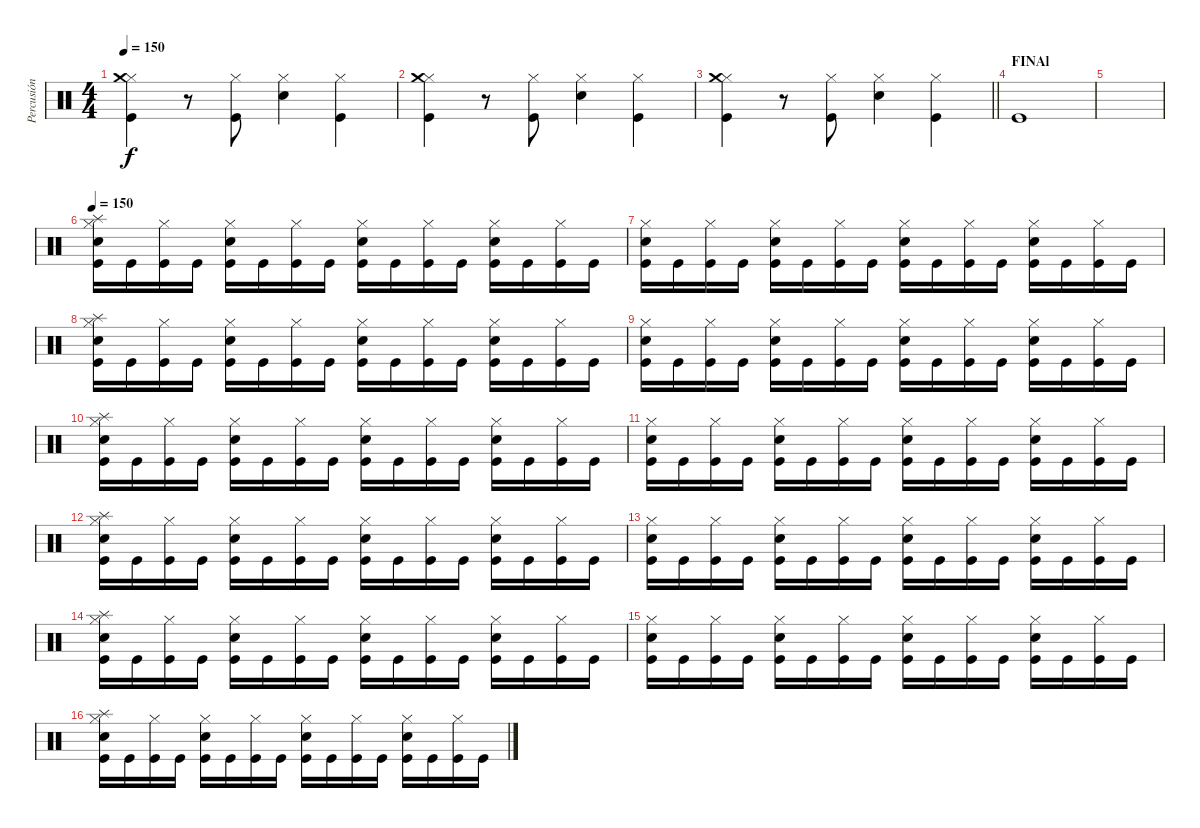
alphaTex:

\track ("Percusión" "Percusión") {instrument percussion}
\staff {score}
\articulation defaults
\ts (4 4)
\tempo 150
\clef neutral
\ks c
("Hi-Hat (closed)" "Crash medium (hit)" "Kick (hit)").4{dy f} r.8 ("Hi-Hat (closed)" "Kick (hit)").8 ("Hi-Hat (closed)" "Snare (hit) 2").4 ("Hi-Hat (closed)" "Kick (hit)").4 |
("Hi-Hat (closed)" "Crash medium (hit)" "Kick (hit)").4 r.8 ("Hi-Hat (closed)" "Kick (hit)").8 ("Hi-Hat (closed)" "Snare (hit) 2").4 ("Hi-Hat (closed)" "Kick (hit)").4 |
\barLineRight lightlight
("Hi-Hat (closed)" "Crash medium (hit)" "Kick (hit)").4 r.8 ("Hi-Hat (closed)" "Kick (hit)").8 ("Hi-Hat (closed)" "Snare (hit) 2").4 ("Hi-Hat (closed)" "Kick (hit)").4 |
\section ("" "FINAl")
"Kick (hit)".1 |
|
\tempo 150
("Hi-Hat (closed)" "Splash (hit)" "Snare (hit) 2" "Kick (hit)").16 "Kick (hit)".16 ("Hi-Hat (closed)" "Kick (hit)").16 "Kick (hit)".16 ("Hi-Hat (closed)" "Snare (hit) 2" "Kick (hit)").16 "Kick (hit)".16 ("Hi-Hat (closed)" "Kick (hit)").16 "Kick (hit)".16 ("Hi-Hat (closed)" "Snare (hit) 2" "Kick (hit)").16 "Kick (hit)".16 ("Hi-Hat (closed)" "Kick (hit)").16 "Kick (hit)".16 ("Hi-Hat (closed)" "Snare (hit) 2" "Kick (hit)").16 "Kick (hit)".16 ("Hi-Hat (closed)" "Kick (hit)").16 "Kick (hit)".16 |
("Hi-Hat (closed)" "Snare (hit) 2" "Kick (hit)").16 "Kick (hit)".16 ("Hi-Hat (closed)" "Kick (hit)").16 "Kick (hit)".16 ("Hi-Hat (closed)" "Snare (hit) 2" "Kick (hit)").16 "Kick (hit)".16 ("Hi-Hat (closed)" "Kick (hit)").16 "Kick (hit)".16 ("Hi-Hat (closed)" "Snare (hit) 2" "Kick (hit)").16 "Kick (hit)".16 ("Hi-Hat (closed)" "Kick (hit)").16 "Kick (hit)".16 ("Hi-Hat (closed)" "Snare (hit) 2" "Kick (hit)").16 "Kick (hit)".16 ("Hi-Hat (closed)" "Kick (hit)").16 "Kick (hit)".16 |
("Hi-Hat (closed)" "Splash (hit)" "Snare (hit) 2" "Kick (hit)").16 "Kick (hit)".16 ("Hi-Hat (closed)" "Kick (hit)").16 "Kick (hit)".16 ("Hi-Hat (closed)" "Snare (hit) 2" "Kick (hit)").16 "Kick (hit)".16 ("Hi-Hat (closed)" "Kick (hit)").16 "Kick (hit)".16 ("Hi-Hat (closed)" "Snare (hit) 2" "Kick (hit)").16 "Kick (hit)".16 ("Hi-Hat (closed)" "Kick (hit)").16 "Kick (hit)".16 ("Hi-Hat (closed)" "Snare (hit) 2" "Kick (hit)").16 "Kick (hit)".16 ("Hi-Hat (closed)" "Kick (hit)").16 "Kick (hit)".16 |
("Hi-Hat (closed)" "Snare (hit) 2" "Kick (hit)").16 "Kick (hit)".16 ("Hi-Hat (closed)" "Kick (hit)").16 "Kick (hit)".16 ("Hi-Hat (closed)" "Snare (hit) 2" "Kick (hit)").16 "Kick (hit)".16 ("Hi-Hat (closed)" "Kick (hit)").16 "Kick (hit)".16 ("Hi-Hat (closed)" "Snare (hit) 2" "Kick (hit)").16 "Kick (hit)".16 ("Hi-Hat (closed)" "Kick (hit)").16 "Kick (hit)".16 ("Hi-Hat (closed)" "Snare (hit) 2" "Kick (hit)").16 "Kick (hit)".16 ("Hi-Hat (closed)" "Kick (hit)").16 "Kick (hit)".16 |
("Hi-Hat (closed)" "Splash (hit)" "Snare (hit) 2" "Kick (hit)").16 "Kick (hit)".16 ("Hi-Hat (closed)" "Kick (hit)").16 "Kick (hit)".16 ("Hi-Hat (closed)" "Snare (hit) 2" "Kick (hit)").16 "Kick (hit)".16 ("Hi-Hat (closed)" "Kick (hit)").16 "Kick (hit)".16 ("Hi-Hat (closed)" "Snare (hit) 2" "Kick (hit)").16 "Kick (hit)".16 ("Hi-Hat (closed)" "Kick (hit)").16 "Kick (hit)".16 ("Hi-Hat (closed)" "Snare (hit) 2" "Kick (hit)").16 "Kick (hit)".16 ("Hi-Hat (closed)" "Kick (hit)").16 "Kick (hit)".16 |
("Hi-Hat (closed)" "Snare (hit) 2" "Kick (hit)").16 "Kick (hit)".16 ("Hi-Hat (closed)" "Kick (hit)").16 "Kick (hit)".16 ("Hi-Hat (closed)" "Snare (hit) 2" "Kick (hit)").16 "Kick (hit)".16 ("Hi-Hat (closed)" "Kick (hit)").16 "Kick (hit)".16 ("Hi-Hat (closed)" "Snare (hit) 2" "Kick (hit)").16 "Kick (hit)".16 ("Hi-Hat (closed)" "Kick (hit)").16 "Kick (hit)".16 ("Hi-Hat (closed)" "Snare (hit) 2" "Kick (hit)").16 "Kick (hit)".16 ("Hi-Hat (closed)" "Kick (hit)").16 "Kick (hit)".16 |
("Hi-Hat (closed)" "Splash (hit)" "Snare (hit) 2" "Kick (hit)").16 "Kick (hit)".16 ("Hi-Hat (closed)" "Kick (hit)").16 "Kick (hit)".16 ("Hi-Hat (closed)" "Snare (hit) 2" "Kick (hit)").16 "Kick (hit)".16 ("Hi-Hat (closed)" "Kick (hit)").16 "Kick (hit)".16 ("Hi-Hat (closed)" "Snare (hit) 2" "Kick (hit)").16 "Kick (hit)".16 ("Hi-Hat (closed)" "Kick (hit)").16 "Kick (hit)".16 ("Hi-Hat (closed)" "Snare (hit) 2" "Kick (hit)").16 "Kick (hit)".16 ("Hi-Hat (closed)" "Kick (hit)").16 "Kick (hit)".16 |
("Hi-Hat (closed)" "Snare (hit) 2" "Kick (hit)").16 "Kick (hit)".16 ("Hi-Hat (closed)" "Kick (hit)").16 "Kick (hit)".16 ("Hi-Hat (closed)" "Snare (hit) 2" "Kick (hit)").16 "Kick (hit)".16 ("Hi-Hat (closed)" "Kick (hit)").16 "Kick (hit)".16 ("Hi-Hat (closed)" "Snare (hit) 2" "Kick (hit)").16 "Kick (hit)".16 ("Hi-Hat (closed)" "Kick (hit)").16 "Kick (hit)".16 ("Hi-Hat (closed)" "Snare (hit) 2" "Kick (hit)").16 "Kick (hit)".16 ("Hi-Hat (closed)" "Kick (hit)").16 "Kick (hit)".16 |
("Hi-Hat (closed)" "Splash (hit)" "Snare (hit) 2" "Kick (hit)").16 "Kick (hit)".16 ("Hi-Hat (closed)" "Kick (hit)").16 "Kick (hit)".16 ("Hi-Hat (closed)" "Snare (hit) 2" "Kick (hit)").16 "Kick (hit)".16 ("Hi-Hat (closed)" "Kick (hit)").16 "Kick (hit)".16 ("Hi-Hat (closed)" "Snare (hit) 2" "Kick (hit)").16 "Kick (hit)".16 ("Hi-Hat (closed)" "Kick (hit)").16 "Kick (hit)".16 ("Hi-Hat (closed)" "Snare (hit) 2" "Kick (hit)").16 "Kick (hit)".16 ("Hi-Hat (closed)" "Kick (hit)").16 "Kick (hit)".16 |
("Hi-Hat (closed)" "Snare (hit) 2" "Kick (hit)").16 "Kick (hit)".16 ("Hi-Hat (closed)" "Kick (hit)").16 "Kick (hit)".16 ("Hi-Hat (closed)" "Snare (hit) 2" "Kick (hit)").16 "Kick (hit)".16 ("Hi-Hat (closed)" "Kick (hit)").16 "Kick (hit)".16 ("Hi-Hat (closed)" "Snare (hit) 2" "Kick (hit)").16 "Kick (hit)".16 ("Hi-Hat (closed)" "Kick (hit)").16 "Kick (hit)".16 ("Hi-Hat (closed)" "Snare (hit) 2" "Kick (hit)").16 "Kick (hit)".16 ("Hi-Hat (closed)" "Kick (hit)").16 "Kick (hit)".16 |
("Hi-Hat (closed)" "Splash (hit)" "Snare (hit) 2" "Kick (hit)").16 "Kick (hit)".16 ("Hi-Hat (closed)" "Kick (hit)").16 "Kick (hit)".16 ("Hi-Hat (closed)" "Snare (hit) 2" "Kick (hit)").16 "Kick (hit)".16 ("Hi-Hat (closed)" "Kick (hit)").16 "Kick (hit)".16 ("Hi-Hat (closed)" "Snare (hit) 2" "Kick (hit)").16 "Kick (hit)".16 ("Hi-Hat (closed)" "Kick (hit)").16 "Kick (hit)".16 ("Hi-Hat (closed)" "Snare (hit) 2" "Kick (hit)").16 "Kick (hit)".16 ("Hi-Hat (closed)" "Kick (hit)").16 "Kick (hit)".16
